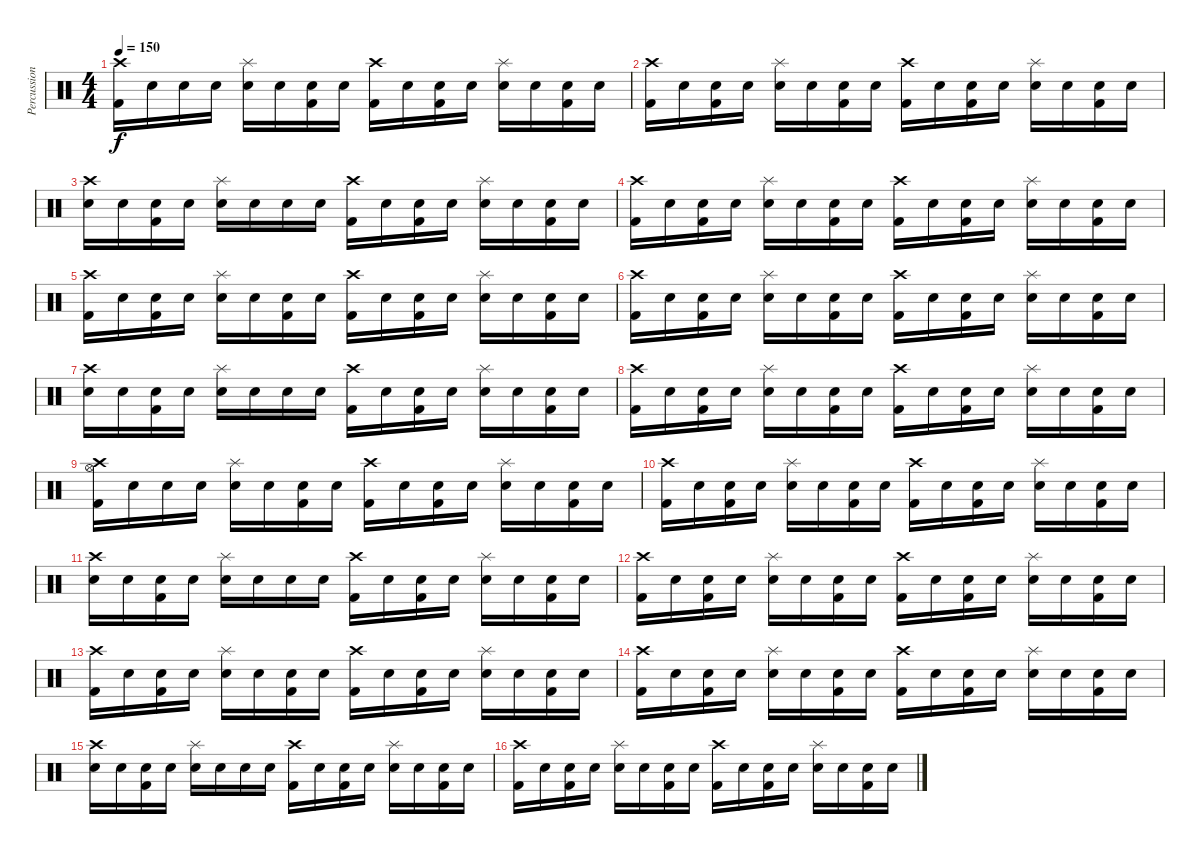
\track ("Percussion" "Percussion") {instrument percussion}
\staff {score}
\articulation defaults
\ts (4 4)
\tempo 150
\tempo 149
\tempo 150
\clef neutral
\ks c
("Crash high (hit)" "Kick (hit) 2").16{dy f} "Snare (hit)".16 "Snare (hit)".16 "Snare (hit)".16 ("Splash (hit)" "Electric Snare (hit)").16 "Snare (hit)".16 ("Snare (hit)" "Kick (hit) 2").16 "Snare (hit)".16 ("Crash high (hit)" "Kick (hit) 2").16 "Snare (hit)".16 ("Snare (hit)" "Kick (hit) 2").16 "Snare (hit)".16 ("Splash (hit)" "Electric Snare (hit)").16 "Snare (hit)".16 ("Snare (hit)" "Kick (hit) 2").16 "Snare (hit)".16 |
("Crash high (hit)" "Kick (hit) 2").16 "Snare (hit)".16 ("Snare (hit)" "Kick (hit) 2").16 "Snare (hit)".16 ("Splash (hit)" "Electric Snare (hit)").16 "Snare (hit)".16 ("Snare (hit)" "Kick (hit) 2").16 "Snare (hit)".16 ("Crash high (hit)" "Kick (hit) 2").16 "Snare (hit)".16 ("Snare (hit)" "Kick (hit) 2").16 "Snare (hit)".16 ("Splash (hit)" "Electric Snare (hit)").16 "Snare (hit)".16 ("Snare (hit)" "Kick (hit) 2").16 "Snare (hit)".16 |
("Crash high (hit)" "Electric Snare (hit)").16 "Snare (hit)".16 ("Snare (hit)" "Kick (hit) 2").16 "Snare (hit)".16 ("Splash (hit)" "Electric Snare (hit)").16 "Snare (hit)".16 "Snare (hit)".16 "Snare (hit)".16 ("Crash high (hit)" "Kick (hit) 2").16 "Snare (hit)".16 ("Snare (hit)" "Kick (hit) 2").16 "Snare (hit)".16 ("Splash (hit)" "Electric Snare (hit)").16 "Snare (hit)".16 ("Snare (hit)" "Kick (hit) 2").16 "Snare (hit)".16 |
("Crash high (hit)" "Kick (hit) 2").16 "Snare (hit)".16 ("Snare (hit)" "Kick (hit) 2").16 "Snare (hit)".16 ("Splash (hit)" "Electric Snare (hit)").16 "Snare (hit)".16 ("Snare (hit)" "Kick (hit) 2").16 "Snare (hit)".16 ("Crash high (hit)" "Kick (hit) 2").16 "Snare (hit)".16 ("Snare (hit)" "Kick (hit) 2").16 "Snare (hit)".16 ("Splash (hit)" "Electric Snare (hit)").16 "Snare (hit)".16 ("Snare (hit)" "Kick (hit) 2").16 "Snare (hit)".16 |
("Crash high (hit)" "Kick (hit) 2").16 "Snare (hit)".16 ("Snare (hit)" "Kick (hit) 2").16 "Snare (hit)".16 ("Splash (hit)" "Electric Snare (hit)").16 "Snare (hit)".16 ("Snare (hit)" "Kick (hit) 2").16 "Snare (hit)".16 ("Crash high (hit)" "Kick (hit) 2").16 "Snare (hit)".16 ("Snare (hit)" "Kick (hit) 2").16 "Snare (hit)".16 ("Splash (hit)" "Electric Snare (hit)").16 "Snare (hit)".16 ("Snare (hit)" "Kick (hit) 2").16 "Snare (hit)".16 |
("Crash high (hit)" "Kick (hit) 2").16 "Snare (hit)".16 ("Snare (hit)" "Kick (hit) 2").16 "Snare (hit)".16 ("Splash (hit)" "Electric Snare (hit)").16 "Snare (hit)".16 ("Snare (hit)" "Kick (hit) 2").16 "Snare (hit)".16 ("Crash high (hit)" "Kick (hit) 2").16 "Snare (hit)".16 ("Snare (hit)" "Kick (hit) 2").16 "Snare (hit)".16 ("Splash (hit)" "Electric Snare (hit)").16 "Snare (hit)".16 ("Snare (hit)" "Kick (hit) 2").16 "Snare (hit)".16 |
("Crash high (hit)" "Electric Snare (hit)").16 "Snare (hit)".16 ("Snare (hit)" "Kick (hit) 2").16 "Snare (hit)".16 ("Splash (hit)" "Electric Snare (hit)").16 "Snare (hit)".16 "Snare (hit)".16 "Snare (hit)".16 ("Crash high (hit)" "Kick (hit) 2").16 "Snare (hit)".16 ("Snare (hit)" "Kick (hit) 2").16 "Snare (hit)".16 ("Splash (hit)" "Electric Snare (hit)").16 "Snare (hit)".16 ("Snare (hit)" "Kick (hit) 2").16 "Snare (hit)".16 |
("Crash high (hit)" "Kick (hit) 2").16 "Snare (hit)".16 ("Snare (hit)" "Kick (hit) 2").16 "Snare (hit)".16 ("Splash (hit)" "Electric Snare (hit)").16 "Snare (hit)".16 ("Snare (hit)" "Kick (hit) 2").16 "Snare (hit)".16 ("Crash high (hit)" "Kick (hit) 2").16 "Snare (hit)".16 ("Snare (hit)" "Kick (hit) 2").16 "Snare (hit)".16 ("Splash (hit)" "Electric Snare (hit)").16 "Snare (hit)".16 ("Snare (hit)" "Kick (hit) 2").16 "Snare (hit)".16 |
("Crash high (hit)" "Hi-Hat (open)" "Kick (hit) 2").16 "Snare (hit)".16 "Snare (hit)".16 "Snare (hit)".16 ("Splash (hit)" "Electric Snare (hit)").16 "Snare (hit)".16 ("Snare (hit)" "Kick (hit) 2").16 "Snare (hit)".16 ("Crash high (hit)" "Kick (hit) 2").16 "Snare (hit)".16 ("Snare (hit)" "Kick (hit) 2").16 "Snare (hit)".16 ("Splash (hit)" "Electric Snare (hit)").16 "Snare (hit)".16 ("Snare (hit)" "Kick (hit) 2").16 "Snare (hit)".16 |
("Crash high (hit)" "Kick (hit) 2").16 "Snare (hit)".16 ("Snare (hit)" "Kick (hit) 2").16 "Snare (hit)".16 ("Splash (hit)" "Electric Snare (hit)").16 "Snare (hit)".16 ("Snare (hit)" "Kick (hit) 2").16 "Snare (hit)".16 ("Crash high (hit)" "Kick (hit) 2").16 "Snare (hit)".16 ("Snare (hit)" "Kick (hit) 2").16 "Snare (hit)".16 ("Splash (hit)" "Electric Snare (hit)").16 "Snare (hit)".16 ("Snare (hit)" "Kick (hit) 2").16 "Snare (hit)".16 |
("Crash high (hit)" "Electric Snare (hit)").16 "Snare (hit)".16 ("Snare (hit)" "Kick (hit) 2").16 "Snare (hit)".16 ("Splash (hit)" "Electric Snare (hit)").16 "Snare (hit)".16 "Snare (hit)".16 "Snare (hit)".16 ("Crash high (hit)" "Kick (hit) 2").16 "Snare (hit)".16 ("Snare (hit)" "Kick (hit) 2").16 "Snare (hit)".16 ("Splash (hit)" "Electric Snare (hit)").16 "Snare (hit)".16 ("Snare (hit)" "Kick (hit) 2").16 "Snare (hit)".16 |
("Crash high (hit)" "Kick (hit) 2").16 "Snare (hit)".16 ("Snare (hit)" "Kick (hit) 2").16 "Snare (hit)".16 ("Splash (hit)" "Electric Snare (hit)").16 "Snare (hit)".16 ("Snare (hit)" "Kick (hit) 2").16 "Snare (hit)".16 ("Crash high (hit)" "Kick (hit) 2").16 "Snare (hit)".16 ("Snare (hit)" "Kick (hit) 2").16 "Snare (hit)".16 ("Splash (hit)" "Electric Snare (hit)").16 "Snare (hit)".16 ("Snare (hit)" "Kick (hit) 2").16 "Snare (hit)".16 |
("Crash high (hit)" "Kick (hit) 2").16 "Snare (hit)".16 ("Snare (hit)" "Kick (hit) 2").16 "Snare (hit)".16 ("Splash (hit)" "Electric Snare (hit)").16 "Snare (hit)".16 ("Snare (hit)" "Kick (hit) 2").16 "Snare (hit)".16 ("Crash high (hit)" "Kick (hit) 2").16 "Snare (hit)".16 ("Snare (hit)" "Kick (hit) 2").16 "Snare (hit)".16 ("Splash (hit)" "Electric Snare (hit)").16 "Snare (hit)".16 ("Snare (hit)" "Kick (hit) 2").16 "Snare (hit)".16 |
("Crash high (hit)" "Kick (hit) 2").16 "Snare (hit)".16 ("Snare (hit)" "Kick (hit) 2").16 "Snare (hit)".16 ("Splash (hit)" "Electric Snare (hit)").16 "Snare (hit)".16 ("Snare (hit)" "Kick (hit) 2").16 "Snare (hit)".16 ("Crash high (hit)" "Kick (hit) 2").16 "Snare (hit)".16 ("Snare (hit)" "Kick (hit) 2").16 "Snare (hit)".16 ("Splash (hit)" "Electric Snare (hit)").16 "Snare (hit)".16 ("Snare (hit)" "Kick (hit) 2").16 "Snare (hit)".16 |
("Crash high (hit)" "Electric Snare (hit)").16 "Snare (hit)".16 ("Snare (hit)" "Kick (hit) 2").16 "Snare (hit)".16 ("Splash (hit)" "Electric Snare (hit)").16 "Snare (hit)".16 "Snare (hit)".16 "Snare (hit)".16 ("Crash high (hit)" "Kick (hit) 2").16 "Snare (hit)".16 ("Snare (hit)" "Kick (hit) 2").16 "Snare (hit)".16 ("Splash (hit)" "Electric Snare (hit)").16 "Snare (hit)".16 ("Snare (hit)" "Kick (hit) 2").16 "Snare (hit)".16 |
("Crash high (hit)" "Kick (hit) 2").16 "Snare (hit)".16 ("Snare (hit)" "Kick (hit) 2").16 "Snare (hit)".16 ("Splash (hit)" "Electric Snare (hit)").16 "Snare (hit)".16 ("Snare (hit)" "Kick (hit) 2").16 "Snare (hit)".16 ("Crash high (hit)" "Kick (hit) 2").16 "Snare (hit)".16 ("Snare (hit)" "Kick (hit) 2").16 "Snare (hit)".16 ("Splash (hit)" "Electric Snare (hit)").16 "Snare (hit)".16 ("Snare (hit)" "Kick (hit) 2").16 "Snare (hit)".16
